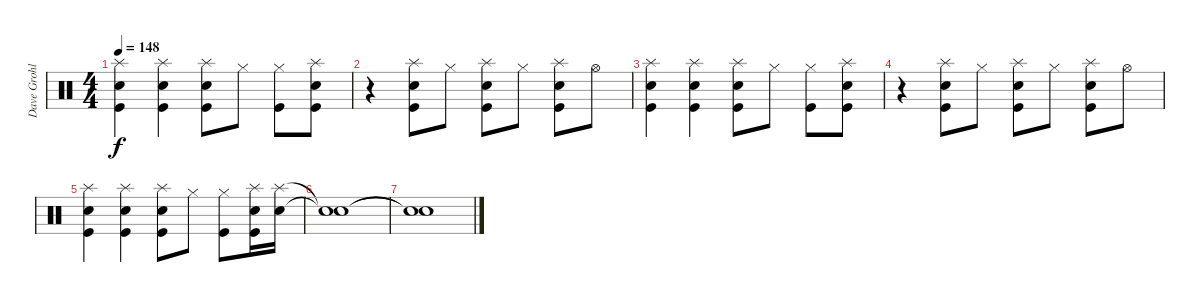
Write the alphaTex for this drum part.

\track ("Dave Grohl" "Dave Grohl") {instrument percussion}
\staff {score}
\articulation defaults
\ts (4 4)
\tempo 148
\clef neutral
\ks c
("Splash (hit)" "Snare (hit) 2" "Kick (hit)").4{dy f} ("Splash (hit)" "Snare (hit) 2" "Kick (hit)").4 ("Splash (hit)" "Snare (hit) 2" "Kick (hit)").8 "Hi-Hat (closed)".8 ("Hi-Hat (closed)" "Kick (hit)").8 ("Splash (hit)" "Snare (hit) 2" "Kick (hit)").8 |
r.4 ("Splash (hit)" "Snare (hit) 2" "Kick (hit)").8 "Hi-Hat (closed)".8 ("Splash (hit)" "Snare (hit) 2" "Kick (hit)").8 "Hi-Hat (closed)".8 ("Splash (hit)" "Snare (hit) 2" "Kick (hit)").8 "Hi-Hat (open)".8 |
("Splash (hit)" "Snare (hit) 2" "Kick (hit)").4 ("Splash (hit)" "Snare (hit) 2" "Kick (hit)").4 ("Splash (hit)" "Snare (hit) 2" "Kick (hit)").8 "Hi-Hat (closed)".8 ("Hi-Hat (closed)" "Kick (hit)").8 ("Splash (hit)" "Snare (hit) 2" "Kick (hit)").8 |
r.4 ("Splash (hit)" "Snare (hit) 2" "Kick (hit)").8 "Hi-Hat (closed)".8 ("Splash (hit)" "Snare (hit) 2" "Kick (hit)").8 "Hi-Hat (closed)".8 ("Splash (hit)" "Snare (hit) 2" "Kick (hit)").8 "Hi-Hat (open)".8 |
("Splash (hit)" "Snare (hit) 2" "Kick (hit)").4 ("Splash (hit)" "Snare (hit) 2" "Kick (hit)").4 ("Splash (hit)" "Snare (hit) 2" "Kick (hit)").8 "Hi-Hat (closed)".8 ("Hi-Hat (closed)" "Kick (hit)").8 ("Splash (hit)" "Snare (hit) 2" "Kick (hit)").16 ("Splash (hit)" "Snare (hit) 2").16 |
("Snare (hit)"{t} "Snare (hit)"{t}).1 |
("Snare (hit)"{t} "Snare (hit)"{t}).1
